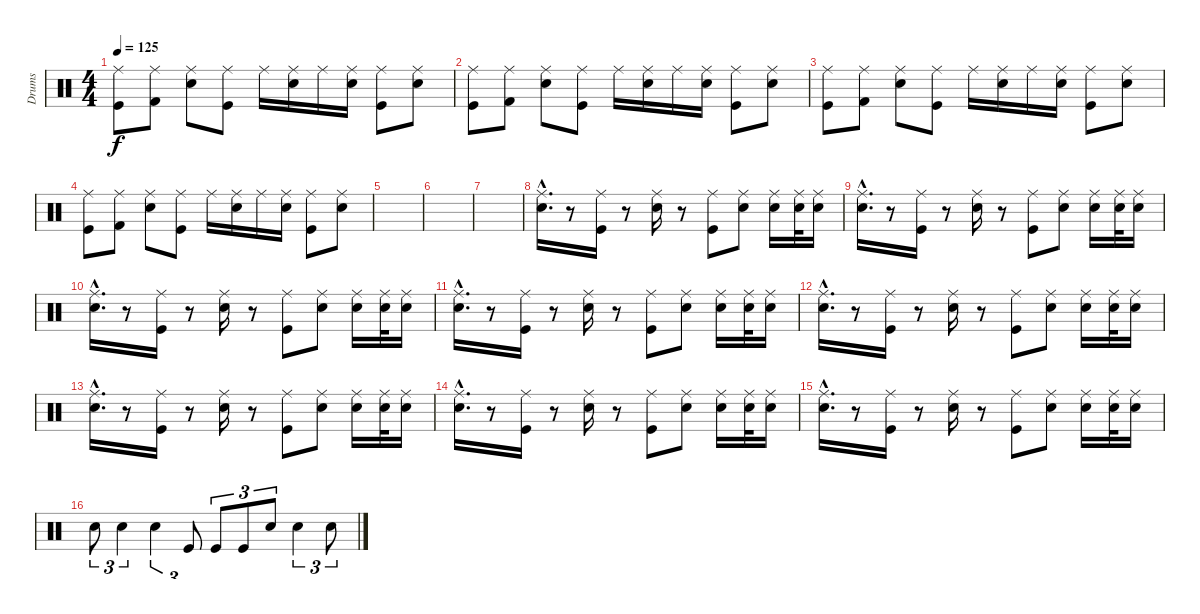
\track ("Drums" "Drums") {instrument percussion}
\staff {score}
\articulation defaults
\ts (4 4)
\tempo 125
\clef neutral
\ks c
("Ride (middle)" "Kick (hit)").8{dy f} ("Ride (middle)" "Kick (hit) 2").8 ("Ride (middle)" "Electric Snare (hit)").8 ("Ride (middle)" "Kick (hit)").8 "Ride (middle)".16 ("Ride (middle)" "Electric Snare (hit)").16 "Ride (middle)".16 ("Ride (middle)" "Electric Snare (hit)").16 ("Ride (middle)" "Kick (hit)").8 ("Ride (middle)" "Electric Snare (hit)").8 |
("Ride (middle)" "Kick (hit)").8 ("Ride (middle)" "Kick (hit) 2").8 ("Ride (middle)" "Electric Snare (hit)").8 ("Ride (middle)" "Kick (hit)").8 "Ride (middle)".16 ("Ride (middle)" "Electric Snare (hit)").16 "Ride (middle)".16 ("Ride (middle)" "Electric Snare (hit)").16 ("Ride (middle)" "Kick (hit)").8 ("Ride (middle)" "Electric Snare (hit)").8 |
("Ride (middle)" "Kick (hit)").8 ("Ride (middle)" "Kick (hit) 2").8 ("Ride (middle)" "Electric Snare (hit)").8 ("Ride (middle)" "Kick (hit)").8 "Ride (middle)".16 ("Ride (middle)" "Electric Snare (hit)").16 "Ride (middle)".16 ("Ride (middle)" "Electric Snare (hit)").16 ("Ride (middle)" "Kick (hit)").8 ("Ride (middle)" "Electric Snare (hit)").8 |
("Ride (middle)" "Kick (hit)").8 ("Ride (middle)" "Kick (hit) 2").8 ("Ride (middle)" "Electric Snare (hit)").8 ("Ride (middle)" "Kick (hit)").8 "Ride (middle)".16 ("Ride (middle)" "Electric Snare (hit)").16 "Ride (middle)".16 ("Ride (middle)" "Electric Snare (hit)").16 ("Ride (middle)" "Kick (hit)").8 ("Ride (middle)" "Electric Snare (hit)").8 |
|
|
|
("Ride (middle)"{hac} "Electric Snare (hit)"{hac}).16{d} r.8 ("Ride (middle)" "Kick (hit)").16 r.8 ("Ride (middle)" "Electric Snare (hit)").16 r.8 ("Ride (middle)" "Kick (hit)").8 ("Ride (middle)" "Electric Snare (hit)").8 ("Ride (middle)" "Electric Snare (hit)").16 ("Ride (middle)" "Electric Snare (hit)").32 ("Ride (middle)" "Electric Snare (hit)").16 |
("Ride (middle)"{hac} "Electric Snare (hit)"{hac}).16{d} r.8 ("Ride (middle)" "Kick (hit)").16 r.8 ("Ride (middle)" "Electric Snare (hit)").16 r.8 ("Ride (middle)" "Kick (hit)").8 ("Ride (middle)" "Electric Snare (hit)").8 ("Ride (middle)" "Electric Snare (hit)").16 ("Ride (middle)" "Electric Snare (hit)").32 ("Ride (middle)" "Electric Snare (hit)").16 |
("Ride (middle)"{hac} "Electric Snare (hit)"{hac}).16{d} r.8 ("Ride (middle)" "Kick (hit)").16 r.8 ("Ride (middle)" "Electric Snare (hit)").16 r.8 ("Ride (middle)" "Kick (hit)").8 ("Ride (middle)" "Electric Snare (hit)").8 ("Ride (middle)" "Electric Snare (hit)").16 ("Ride (middle)" "Electric Snare (hit)").32 ("Ride (middle)" "Electric Snare (hit)").16 |
("Ride (middle)"{hac} "Electric Snare (hit)"{hac}).16{d} r.8 ("Ride (middle)" "Kick (hit)").16 r.8 ("Ride (middle)" "Electric Snare (hit)").16 r.8 ("Ride (middle)" "Kick (hit)").8 ("Ride (middle)" "Electric Snare (hit)").8 ("Ride (middle)" "Electric Snare (hit)").16 ("Ride (middle)" "Electric Snare (hit)").32 ("Ride (middle)" "Electric Snare (hit)").16 |
("Ride (middle)"{hac} "Electric Snare (hit)"{hac}).16{d} r.8 ("Ride (middle)" "Kick (hit)").16 r.8 ("Ride (middle)" "Electric Snare (hit)").16 r.8 ("Ride (middle)" "Kick (hit)").8 ("Ride (middle)" "Electric Snare (hit)").8 ("Ride (middle)" "Electric Snare (hit)").16 ("Ride (middle)" "Electric Snare (hit)").32 ("Ride (middle)" "Electric Snare (hit)").16 |
("Ride (middle)"{hac} "Electric Snare (hit)"{hac}).16{d} r.8 ("Ride (middle)" "Kick (hit)").16 r.8 ("Ride (middle)" "Electric Snare (hit)").16 r.8 ("Ride (middle)" "Kick (hit)").8 ("Ride (middle)" "Electric Snare (hit)").8 ("Ride (middle)" "Electric Snare (hit)").16 ("Ride (middle)" "Electric Snare (hit)").32 ("Ride (middle)" "Electric Snare (hit)").16 |
("Ride (middle)"{hac} "Electric Snare (hit)"{hac}).16{d} r.8 ("Ride (middle)" "Kick (hit)").16 r.8 ("Ride (middle)" "Electric Snare (hit)").16 r.8 ("Ride (middle)" "Kick (hit)").8 ("Ride (middle)" "Electric Snare (hit)").8 ("Ride (middle)" "Electric Snare (hit)").16 ("Ride (middle)" "Electric Snare (hit)").32 ("Ride (middle)" "Electric Snare (hit)").16 |
("Ride (middle)"{hac} "Electric Snare (hit)"{hac}).16{d} r.8 ("Ride (middle)" "Kick (hit)").16 r.8 ("Ride (middle)" "Electric Snare (hit)").16 r.8 ("Ride (middle)" "Kick (hit)").8 ("Ride (middle)" "Electric Snare (hit)").8 ("Ride (middle)" "Electric Snare (hit)").16 ("Ride (middle)" "Electric Snare (hit)").32 ("Ride (middle)" "Electric Snare (hit)").16 |
"Electric Snare (hit)".8{tu (3 2)} "Electric Snare (hit)".4{tu (3 2)} "Electric Snare (hit)".4{tu (3 2)} "Kick (hit)".8{tu (3 2)} "Kick (hit)".8{tu (3 2)} "Kick (hit)".8{tu (3 2)} "Electric Snare (hit)".8{tu (3 2)} "Electric Snare (hit)".4{tu (3 2)} "Electric Snare (hit)".8{tu (3 2)}
